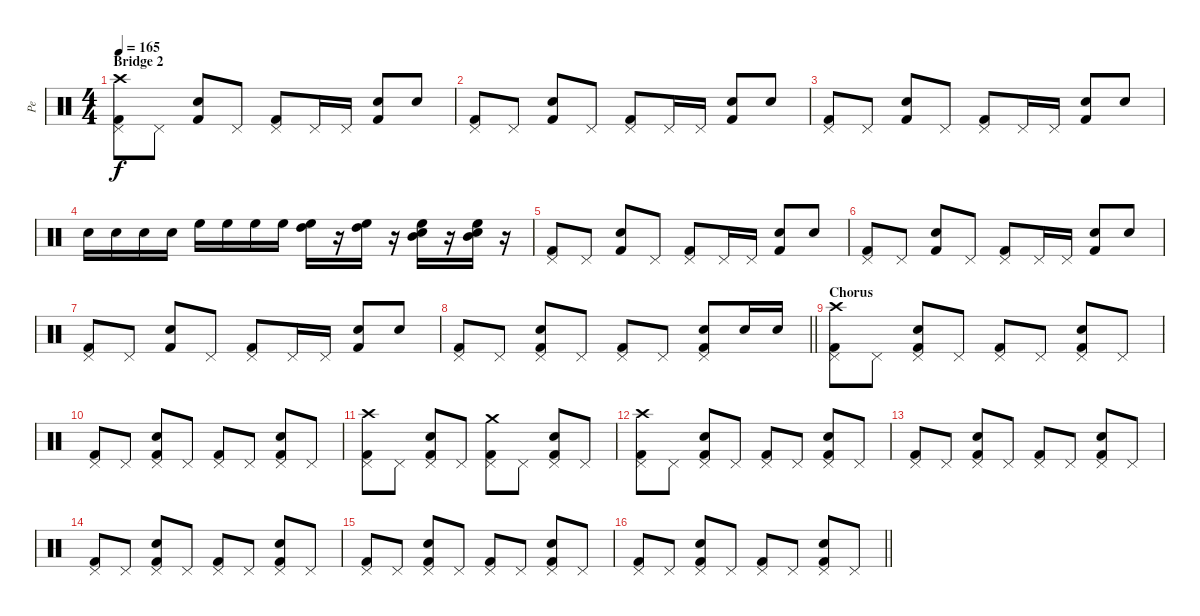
\track ("Pe" "Pe") {instrument percussion}
\staff {score}
\articulation defaults
\ts (4 4)
\section ("" "Bridge 2")
\tempo 165
\clef neutral
\ks c
("Pedal Hi-Hat (hit)" "Kick (hit) 2" "Crash high (hit)").8{dy f} "Pedal Hi-Hat (hit)".8 ("Snare (hit) 2" "Kick (hit) 2").8 "Pedal Hi-Hat (hit)".8 ("Pedal Hi-Hat (hit)" "Kick (hit) 2").8 "Pedal Hi-Hat (hit)".16 "Pedal Hi-Hat (hit)".16 ("Snare (hit) 2" "Kick (hit) 2").8 "Snare (hit) 2".8 |
("Pedal Hi-Hat (hit)" "Kick (hit) 2").8 "Pedal Hi-Hat (hit)".8 ("Snare (hit) 2" "Kick (hit) 2").8 "Pedal Hi-Hat (hit)".8 ("Pedal Hi-Hat (hit)" "Kick (hit) 2").8 "Pedal Hi-Hat (hit)".16 "Pedal Hi-Hat (hit)".16 ("Snare (hit) 2" "Kick (hit) 2").8 "Snare (hit) 2".8 |
("Pedal Hi-Hat (hit)" "Kick (hit) 2").8 "Pedal Hi-Hat (hit)".8 ("Snare (hit) 2" "Kick (hit) 2").8 "Pedal Hi-Hat (hit)".8 ("Pedal Hi-Hat (hit)" "Kick (hit) 2").8 "Pedal Hi-Hat (hit)".16 "Pedal Hi-Hat (hit)".16 ("Snare (hit) 2" "Kick (hit) 2").8 "Snare (hit) 2".8 |
"Electric Snare (hit)".16 "Electric Snare (hit)".16 "Electric Snare (hit)".16 "Electric Snare (hit)".16 "High Floor Tom (hit)".16 "High Floor Tom (hit)".16 "High Floor Tom (hit)".16 "High Floor Tom (hit)".16 ("High Tom (hit)" "High Floor Tom (hit)").16 r.16 ("High Tom (hit)" "High Floor Tom (hit)").16 r.16 ("Mid Tom (hit)" "High Floor Tom (hit)" "Electric Snare (hit)").16 r.16 ("Mid Tom (hit)" "High Floor Tom (hit)" "Electric Snare (hit)").16 r.16 |
("Pedal Hi-Hat (hit)" "Kick (hit) 2").8 "Pedal Hi-Hat (hit)".8 ("Snare (hit) 2" "Kick (hit) 2").8 "Pedal Hi-Hat (hit)".8 ("Pedal Hi-Hat (hit)" "Kick (hit) 2").8 "Pedal Hi-Hat (hit)".16 "Pedal Hi-Hat (hit)".16 ("Snare (hit) 2" "Kick (hit) 2").8 "Snare (hit) 2".8 |
("Pedal Hi-Hat (hit)" "Kick (hit) 2").8 "Pedal Hi-Hat (hit)".8 ("Snare (hit) 2" "Kick (hit) 2").8 "Pedal Hi-Hat (hit)".8 ("Pedal Hi-Hat (hit)" "Kick (hit) 2").8 "Pedal Hi-Hat (hit)".16 "Pedal Hi-Hat (hit)".16 ("Snare (hit) 2" "Kick (hit) 2").8 "Snare (hit) 2".8 |
("Pedal Hi-Hat (hit)" "Kick (hit) 2").8 "Pedal Hi-Hat (hit)".8 ("Snare (hit) 2" "Kick (hit) 2").8 "Pedal Hi-Hat (hit)".8 ("Pedal Hi-Hat (hit)" "Kick (hit) 2").8 "Pedal Hi-Hat (hit)".16 "Pedal Hi-Hat (hit)".16 ("Snare (hit) 2" "Kick (hit) 2").8 "Snare (hit) 2".8 |
\barLineRight lightlight
("Pedal Hi-Hat (hit)" "Kick (hit) 2").8 "Pedal Hi-Hat (hit)".8 ("Electric Snare (hit)" "Pedal Hi-Hat (hit)" "Kick (hit) 2").8 "Pedal Hi-Hat (hit)".8 ("Pedal Hi-Hat (hit)" "Kick (hit) 2").8 "Pedal Hi-Hat (hit)".8 ("Electric Snare (hit)" "Pedal Hi-Hat (hit)" "Kick (hit) 2").8 "Electric Snare (hit)".16 "Electric Snare (hit)".16 |
\section ("" "Chorus")
("Pedal Hi-Hat (hit)" "Kick (hit) 2" "Crash high (hit)").8 "Pedal Hi-Hat (hit)".8 ("Electric Snare (hit)" "Pedal Hi-Hat (hit)" "Kick (hit) 2").8 "Pedal Hi-Hat (hit)".8 ("Pedal Hi-Hat (hit)" "Kick (hit) 2").8 "Pedal Hi-Hat (hit)".8 ("Electric Snare (hit)" "Pedal Hi-Hat (hit)" "Kick (hit) 2").8 "Pedal Hi-Hat (hit)".8 |
("Pedal Hi-Hat (hit)" "Kick (hit) 2").8 "Pedal Hi-Hat (hit)".8 ("Electric Snare (hit)" "Pedal Hi-Hat (hit)" "Kick (hit) 2").8 "Pedal Hi-Hat (hit)".8 ("Pedal Hi-Hat (hit)" "Kick (hit) 2").8 "Pedal Hi-Hat (hit)".8 ("Electric Snare (hit)" "Pedal Hi-Hat (hit)" "Kick (hit) 2").8 "Pedal Hi-Hat (hit)".8 |
("Pedal Hi-Hat (hit)" "Kick (hit) 2" "Crash high (hit)").8 "Pedal Hi-Hat (hit)".8 ("Electric Snare (hit)" "Pedal Hi-Hat (hit)" "Kick (hit) 2").8 "Pedal Hi-Hat (hit)".8 ("Pedal Hi-Hat (hit)" "Kick (hit) 2" "Crash medium (hit)").8 "Pedal Hi-Hat (hit)".8 ("Electric Snare (hit)" "Pedal Hi-Hat (hit)" "Kick (hit) 2").8 "Pedal Hi-Hat (hit)".8 |
("Pedal Hi-Hat (hit)" "Kick (hit) 2" "Crash high (hit)").8 "Pedal Hi-Hat (hit)".8 ("Electric Snare (hit)" "Pedal Hi-Hat (hit)" "Kick (hit) 2").8 "Pedal Hi-Hat (hit)".8 ("Pedal Hi-Hat (hit)" "Kick (hit) 2").8 "Pedal Hi-Hat (hit)".8 ("Electric Snare (hit)" "Pedal Hi-Hat (hit)" "Kick (hit) 2").8 "Pedal Hi-Hat (hit)".8 |
("Pedal Hi-Hat (hit)" "Kick (hit) 2").8 "Pedal Hi-Hat (hit)".8 ("Electric Snare (hit)" "Pedal Hi-Hat (hit)" "Kick (hit) 2").8 "Pedal Hi-Hat (hit)".8 ("Pedal Hi-Hat (hit)" "Kick (hit) 2").8 "Pedal Hi-Hat (hit)".8 ("Electric Snare (hit)" "Pedal Hi-Hat (hit)" "Kick (hit) 2").8 "Pedal Hi-Hat (hit)".8 |
("Pedal Hi-Hat (hit)" "Kick (hit) 2").8 "Pedal Hi-Hat (hit)".8 ("Electric Snare (hit)" "Pedal Hi-Hat (hit)" "Kick (hit) 2").8 "Pedal Hi-Hat (hit)".8 ("Pedal Hi-Hat (hit)" "Kick (hit) 2").8 "Pedal Hi-Hat (hit)".8 ("Electric Snare (hit)" "Pedal Hi-Hat (hit)" "Kick (hit) 2").8 "Pedal Hi-Hat (hit)".8 |
("Pedal Hi-Hat (hit)" "Kick (hit) 2").8 "Pedal Hi-Hat (hit)".8 ("Electric Snare (hit)" "Pedal Hi-Hat (hit)" "Kick (hit) 2").8 "Pedal Hi-Hat (hit)".8 ("Pedal Hi-Hat (hit)" "Kick (hit) 2").8 "Pedal Hi-Hat (hit)".8 ("Electric Snare (hit)" "Pedal Hi-Hat (hit)" "Kick (hit) 2").8 "Pedal Hi-Hat (hit)".8 |
\barLineRight lightlight
("Pedal Hi-Hat (hit)" "Kick (hit) 2").8 "Pedal Hi-Hat (hit)".8 ("Electric Snare (hit)" "Pedal Hi-Hat (hit)" "Kick (hit) 2").8 "Pedal Hi-Hat (hit)".8 ("Pedal Hi-Hat (hit)" "Kick (hit) 2").8 "Pedal Hi-Hat (hit)".8 ("Electric Snare (hit)" "Pedal Hi-Hat (hit)" "Kick (hit) 2").8 "Pedal Hi-Hat (hit)".8
